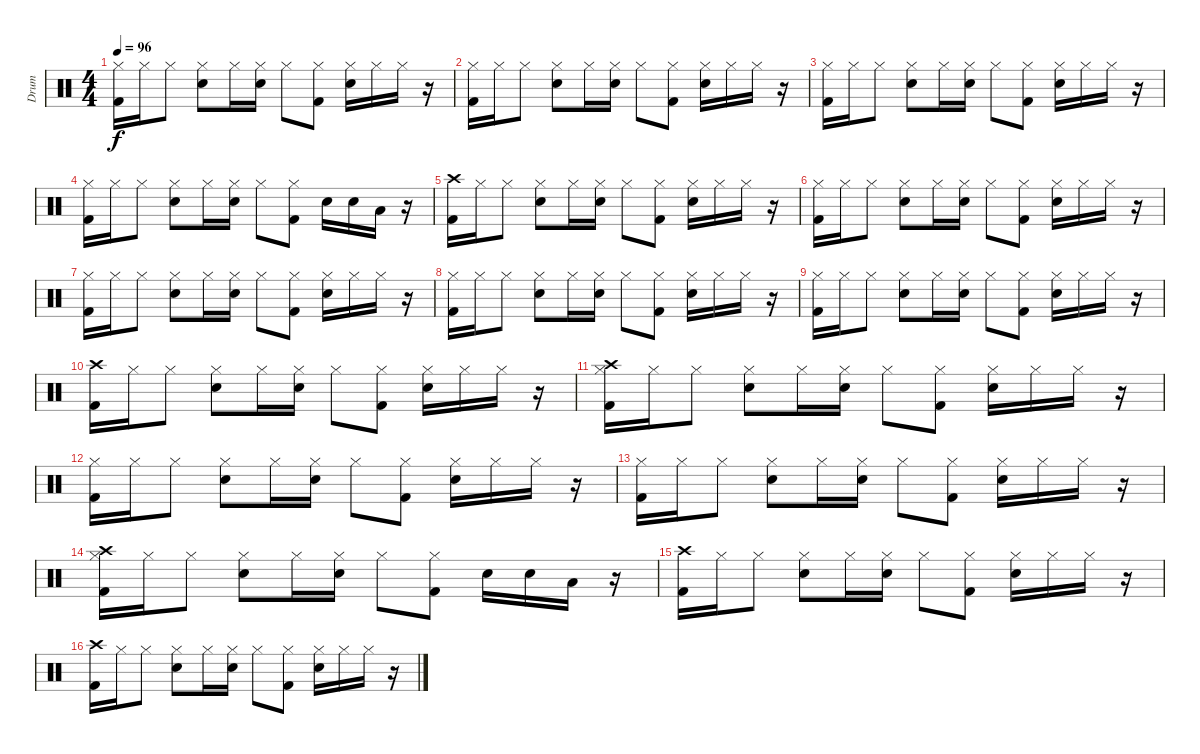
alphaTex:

\track ("Drum" "Drum") {instrument percussion}
\staff {score}
\articulation defaults
\ts (4 4)
\tempo 96
\clef neutral
\ks c
("Hi-Hat (closed)" "Kick (hit) 2").16{dy f} "Hi-Hat (closed)".16 "Hi-Hat (closed)".8 ("Hi-Hat (closed)" "Snare (hit) 2").8 "Hi-Hat (closed)".16 ("Hi-Hat (closed)" "Snare (hit) 2").16 "Hi-Hat (closed)".8 ("Hi-Hat (closed)" "Kick (hit) 2").8 ("Hi-Hat (closed)" "Snare (hit) 2").16 "Hi-Hat (closed)".16 "Hi-Hat (closed)".16 r.16 |
("Hi-Hat (closed)" "Kick (hit) 2").16 "Hi-Hat (closed)".16 "Hi-Hat (closed)".8 ("Hi-Hat (closed)" "Snare (hit) 2").8 "Hi-Hat (closed)".16 ("Hi-Hat (closed)" "Snare (hit) 2").16 "Hi-Hat (closed)".8 ("Hi-Hat (closed)" "Kick (hit) 2").8 ("Hi-Hat (closed)" "Snare (hit) 2").16 "Hi-Hat (closed)".16 "Hi-Hat (closed)".16 r.16 |
("Hi-Hat (closed)" "Kick (hit) 2").16 "Hi-Hat (closed)".16 "Hi-Hat (closed)".8 ("Hi-Hat (closed)" "Snare (hit) 2").8 "Hi-Hat (closed)".16 ("Hi-Hat (closed)" "Snare (hit) 2").16 "Hi-Hat (closed)".8 ("Hi-Hat (closed)" "Kick (hit) 2").8 ("Hi-Hat (closed)" "Snare (hit) 2").16 "Hi-Hat (closed)".16 "Hi-Hat (closed)".16 r.16 |
("Hi-Hat (closed)" "Kick (hit) 2").16 "Hi-Hat (closed)".16 "Hi-Hat (closed)".8 ("Hi-Hat (closed)" "Snare (hit) 2").8 "Hi-Hat (closed)".16 ("Hi-Hat (closed)" "Snare (hit) 2").16 "Hi-Hat (closed)".8 ("Hi-Hat (closed)" "Kick (hit) 2").8 "Snare (hit) 2".16 "Snare (hit) 2".16 "Low Tom (hit)".16 r.16 |
("Crash high (hit)" "Kick (hit) 2").16 "Hi-Hat (closed)".16 "Hi-Hat (closed)".8 ("Hi-Hat (closed)" "Snare (hit) 2").8 "Hi-Hat (closed)".16 ("Hi-Hat (closed)" "Snare (hit) 2").16 "Hi-Hat (closed)".8 ("Hi-Hat (closed)" "Kick (hit) 2").8 ("Hi-Hat (closed)" "Snare (hit) 2").16 "Hi-Hat (closed)".16 "Hi-Hat (closed)".16 r.16 |
("Hi-Hat (closed)" "Kick (hit) 2").16 "Hi-Hat (closed)".16 "Hi-Hat (closed)".8 ("Hi-Hat (closed)" "Snare (hit) 2").8 "Hi-Hat (closed)".16 ("Hi-Hat (closed)" "Snare (hit) 2").16 "Hi-Hat (closed)".8 ("Hi-Hat (closed)" "Kick (hit) 2").8 ("Hi-Hat (closed)" "Snare (hit) 2").16 "Hi-Hat (closed)".16 "Hi-Hat (closed)".16 r.16 |
("Hi-Hat (closed)" "Kick (hit) 2").16 "Hi-Hat (closed)".16 "Hi-Hat (closed)".8 ("Hi-Hat (closed)" "Snare (hit) 2").8 "Hi-Hat (closed)".16 ("Hi-Hat (closed)" "Snare (hit) 2").16 "Hi-Hat (closed)".8 ("Hi-Hat (closed)" "Kick (hit) 2").8 ("Hi-Hat (closed)" "Snare (hit) 2").16 "Hi-Hat (closed)".16 "Hi-Hat (closed)".16 r.16 |
("Hi-Hat (closed)" "Kick (hit) 2").16 "Hi-Hat (closed)".16 "Hi-Hat (closed)".8 ("Hi-Hat (closed)" "Snare (hit) 2").8 "Hi-Hat (closed)".16 ("Hi-Hat (closed)" "Snare (hit) 2").16 "Hi-Hat (closed)".8 ("Hi-Hat (closed)" "Kick (hit) 2").8 ("Hi-Hat (closed)" "Snare (hit) 2").16 "Hi-Hat (closed)".16 "Hi-Hat (closed)".16 r.16 |
("Hi-Hat (closed)" "Kick (hit) 2").16 "Hi-Hat (closed)".16 "Hi-Hat (closed)".8 ("Hi-Hat (closed)" "Snare (hit) 2").8 "Hi-Hat (closed)".16 ("Hi-Hat (closed)" "Snare (hit) 2").16 "Hi-Hat (closed)".8 ("Hi-Hat (closed)" "Kick (hit) 2").8 ("Hi-Hat (closed)" "Snare (hit) 2").16 "Hi-Hat (closed)".16 "Hi-Hat (closed)".16 r.16 |
("Crash high (hit)" "Kick (hit) 2").16 "Hi-Hat (closed)".16 "Hi-Hat (closed)".8 ("Hi-Hat (closed)" "Snare (hit) 2").8 "Hi-Hat (closed)".16 ("Hi-Hat (closed)" "Snare (hit) 2").16 "Hi-Hat (closed)".8 ("Hi-Hat (closed)" "Kick (hit) 2").8 ("Hi-Hat (closed)" "Snare (hit) 2").16 "Hi-Hat (closed)".16 "Hi-Hat (closed)".16 r.16 |
("Crash high (hit)" "Hi-Hat (closed)" "Kick (hit) 2").16 "Hi-Hat (closed)".16 "Hi-Hat (closed)".8 ("Hi-Hat (closed)" "Snare (hit) 2").8 "Hi-Hat (closed)".16 ("Hi-Hat (closed)" "Snare (hit) 2").16 "Hi-Hat (closed)".8 ("Hi-Hat (closed)" "Kick (hit) 2").8 ("Hi-Hat (closed)" "Snare (hit) 2").16 "Hi-Hat (closed)".16 "Hi-Hat (closed)".16 r.16 |
("Hi-Hat (closed)" "Kick (hit) 2").16 "Hi-Hat (closed)".16 "Hi-Hat (closed)".8 ("Hi-Hat (closed)" "Snare (hit) 2").8 "Hi-Hat (closed)".16 ("Hi-Hat (closed)" "Snare (hit) 2").16 "Hi-Hat (closed)".8 ("Hi-Hat (closed)" "Kick (hit) 2").8 ("Hi-Hat (closed)" "Snare (hit) 2").16 "Hi-Hat (closed)".16 "Hi-Hat (closed)".16 r.16 |
("Hi-Hat (closed)" "Kick (hit) 2").16 "Hi-Hat (closed)".16 "Hi-Hat (closed)".8 ("Hi-Hat (closed)" "Snare (hit) 2").8 "Hi-Hat (closed)".16 ("Hi-Hat (closed)" "Snare (hit) 2").16 "Hi-Hat (closed)".8 ("Hi-Hat (closed)" "Kick (hit) 2").8 ("Hi-Hat (closed)" "Snare (hit) 2").16 "Hi-Hat (closed)".16 "Hi-Hat (closed)".16 r.16 |
("Crash high (hit)" "Hi-Hat (closed)" "Kick (hit) 2").16 "Hi-Hat (closed)".16 "Hi-Hat (closed)".8 ("Hi-Hat (closed)" "Snare (hit) 2").8 "Hi-Hat (closed)".16 ("Hi-Hat (closed)" "Snare (hit) 2").16 "Hi-Hat (closed)".8 ("Hi-Hat (closed)" "Kick (hit) 2").8 "Snare (hit) 2".16 "Snare (hit) 2".16 "Low Tom (hit)".16 r.16 |
("Crash high (hit)" "Kick (hit) 2").16 "Hi-Hat (closed)".16 "Hi-Hat (closed)".8 ("Hi-Hat (closed)" "Snare (hit) 2").8 "Hi-Hat (closed)".16 ("Hi-Hat (closed)" "Snare (hit) 2").16 "Hi-Hat (closed)".8 ("Hi-Hat (closed)" "Kick (hit) 2").8 ("Hi-Hat (closed)" "Snare (hit) 2").16 "Hi-Hat (closed)".16 "Hi-Hat (closed)".16 r.16 |
("Crash high (hit)" "Kick (hit) 2").16 "Hi-Hat (closed)".16 "Hi-Hat (closed)".8 ("Hi-Hat (closed)" "Snare (hit) 2").8 "Hi-Hat (closed)".16 ("Hi-Hat (closed)" "Snare (hit) 2").16 "Hi-Hat (closed)".8 ("Hi-Hat (closed)" "Kick (hit) 2").8 ("Hi-Hat (closed)" "Snare (hit) 2").16 "Hi-Hat (closed)".16 "Hi-Hat (closed)".16 r.16
